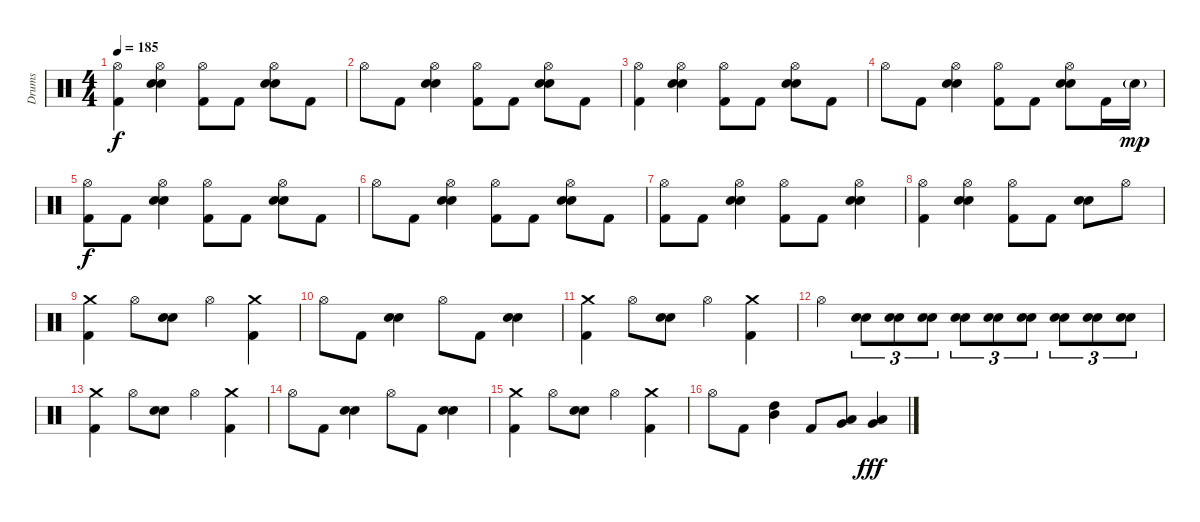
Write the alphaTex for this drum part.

\track ("Drums" "Drums") {instrument percussion}
\staff {score}
\articulation defaults
\ts (4 4)
\tempo 185
\clef neutral
\ks c
("Hi-Hat (open)" "Kick (hit) 2").4{dy f} ("Hi-Hat (open)" "Electric Snare (hit)" "Snare (hit) 2").4 ("Hi-Hat (open)" "Kick (hit) 2").8 "Kick (hit) 2".8 ("Hi-Hat (open)" "Electric Snare (hit)" "Snare (hit) 2").8 "Kick (hit) 2".8 |
"Hi-Hat (open)".8 "Kick (hit) 2".8 ("Hi-Hat (open)" "Electric Snare (hit)" "Snare (hit) 2").4 ("Hi-Hat (open)" "Kick (hit) 2").8 "Kick (hit) 2".8 ("Hi-Hat (open)" "Electric Snare (hit)" "Snare (hit) 2").8 "Kick (hit) 2".8 |
("Hi-Hat (open)" "Kick (hit) 2").4 ("Hi-Hat (open)" "Electric Snare (hit)" "Snare (hit) 2").4 ("Hi-Hat (open)" "Kick (hit) 2").8 "Kick (hit) 2".8 ("Hi-Hat (open)" "Electric Snare (hit)" "Snare (hit) 2").8 "Kick (hit) 2".8 |
"Hi-Hat (open)".8 "Kick (hit) 2".8 ("Hi-Hat (open)" "Electric Snare (hit)" "Snare (hit) 2").4 ("Hi-Hat (open)" "Kick (hit) 2").8 "Kick (hit) 2".8 ("Hi-Hat (open)" "Electric Snare (hit)" "Snare (hit) 2").8 "Kick (hit) 2".16 "Snare (hit) 2"{g}.16{dy mp} |
("Hi-Hat (open)" "Kick (hit) 2").8{dy f} "Kick (hit) 2".8 ("Hi-Hat (open)" "Electric Snare (hit)" "Snare (hit) 2").4 ("Hi-Hat (open)" "Kick (hit) 2").8 "Kick (hit) 2".8 ("Hi-Hat (open)" "Electric Snare (hit)" "Snare (hit) 2").8 "Kick (hit) 2".8 |
"Hi-Hat (open)".8 "Kick (hit) 2".8 ("Hi-Hat (open)" "Electric Snare (hit)" "Snare (hit) 2").4 ("Hi-Hat (open)" "Kick (hit) 2").8 "Kick (hit) 2".8 ("Hi-Hat (open)" "Electric Snare (hit)" "Snare (hit) 2").8 "Kick (hit) 2".8 |
("Hi-Hat (open)" "Kick (hit) 2").8 "Kick (hit) 2".8 ("Hi-Hat (open)" "Snare (hit) 2" "Electric Snare (hit)").4 ("Hi-Hat (open)" "Kick (hit) 2").8 "Kick (hit) 2".8 ("Hi-Hat (open)" "Snare (hit) 2" "Electric Snare (hit)").4 |
("Hi-Hat (open)" "Kick (hit) 2").4 ("Hi-Hat (open)" "Snare (hit) 2" "Electric Snare (hit)").4 ("Hi-Hat (open)" "Kick (hit) 2").8 "Kick (hit) 2".8 ("Snare (hit) 2" "Electric Snare (hit)").8 "Hi-Hat (open)".8 |
("Crash medium (hit)" "Kick (hit) 2").4 "Hi-Hat (open)".8 ("Snare (hit) 2" "Electric Snare (hit)").8 "Hi-Hat (open)".4 ("Crash medium (hit)" "Kick (hit) 2").4 |
"Hi-Hat (open)".8 "Kick (hit) 2".8 ("Snare (hit) 2" "Electric Snare (hit)").4 "Hi-Hat (open)".8 "Kick (hit) 2".8 ("Snare (hit) 2" "Electric Snare (hit)").4 |
("Crash medium (hit)" "Kick (hit) 2").4 "Hi-Hat (open)".8 ("Snare (hit) 2" "Electric Snare (hit)").8 "Hi-Hat (open)".4 ("Crash medium (hit)" "Kick (hit) 2").4 |
"Hi-Hat (open)".4 ("Snare (hit) 2" "Electric Snare (hit)").8{tu (3 2)} ("Snare (hit) 2" "Electric Snare (hit)").8{tu (3 2)} ("Snare (hit) 2" "Electric Snare (hit)").8{tu (3 2)} ("Snare (hit) 2" "Electric Snare (hit)").8{tu (3 2)} ("Snare (hit) 2" "Electric Snare (hit)").8{tu (3 2)} ("Snare (hit) 2" "Electric Snare (hit)").8{tu (3 2)} ("Snare (hit) 2" "Electric Snare (hit)").8{tu (3 2)} ("Snare (hit) 2" "Electric Snare (hit)").8{tu (3 2)} ("Snare (hit) 2" "Electric Snare (hit)").8{tu (3 2)} |
("Crash medium (hit)" "Kick (hit) 2").4 "Hi-Hat (open)".8 ("Snare (hit) 2" "Electric Snare (hit)").8 "Hi-Hat (open)".4 ("Crash medium (hit)" "Kick (hit) 2").4 |
"Hi-Hat (open)".8 "Kick (hit) 2".8 ("Snare (hit) 2" "Electric Snare (hit)").4 "Hi-Hat (open)".8 "Kick (hit) 2".8 ("Snare (hit) 2" "Electric Snare (hit)").4 |
("Crash medium (hit)" "Kick (hit) 2").4 "Hi-Hat (open)".8 ("Snare (hit) 2" "Electric Snare (hit)").8 "Hi-Hat (open)".4 ("Crash medium (hit)" "Kick (hit) 2").4 |
"Hi-Hat (open)".8 "Kick (hit) 2".8 ("High Tom (hit)" "Mid Tom (hit)").4 "Kick (hit) 2".8 ("Low Tom (hit)" "Very Low Tom (hit)").8 ("Low Tom (hit)" "Very Low Tom (hit)").4{dy fff}
